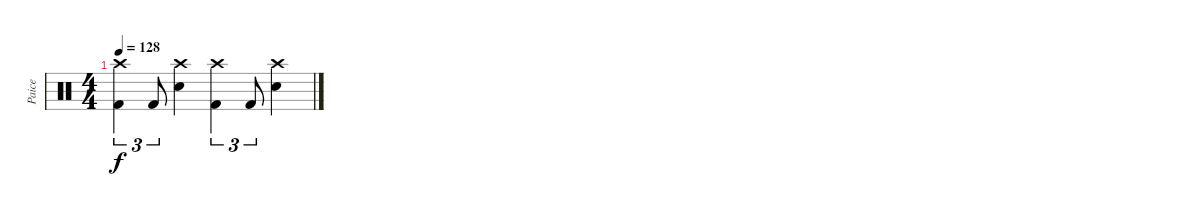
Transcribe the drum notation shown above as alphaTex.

\track ("Paice" "Paice") {instrument percussion}
\staff {score}
\articulation defaults
\ts (4 4)
\tempo 128
\clef neutral
\ks c
("Crash high (hit)" "Kick (hit) 2").4{tu (3 2) dy f} "Kick (hit) 2".8{tu (3 2)} ("Crash high (hit)" "Snare (hit) 2").4 ("Crash high (hit)" "Kick (hit) 2").4{tu (3 2)} "Kick (hit) 2".8{tu (3 2)} ("Crash high (hit)" "Snare (hit) 2").4
